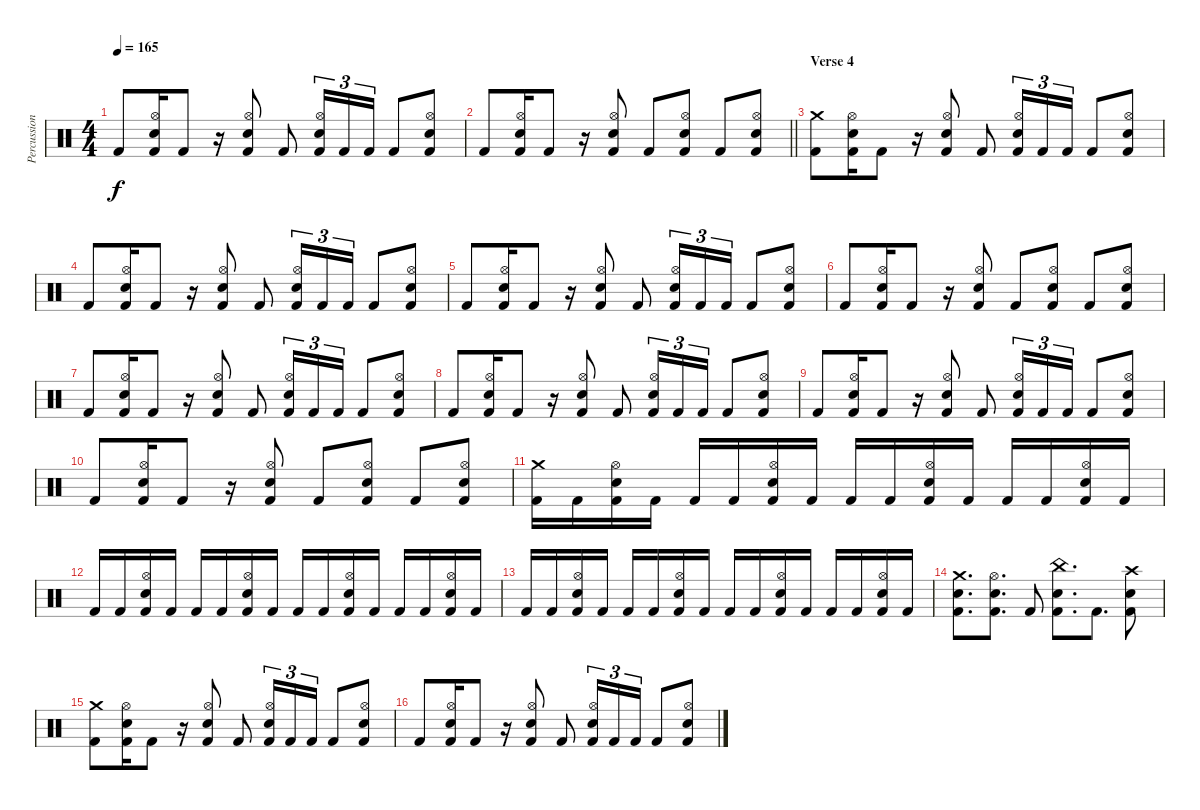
\track ("Percussion" "Percussion") {instrument percussion}
\staff {score}
\articulation defaults
\ts (4 4)
\tempo 165
\clef neutral
\ks c "Kick (hit) 2".8{dy f}
("Hi-Hat (open)" "Kick (hit) 2" "Snare (hit) 2").16 "Kick (hit) 2".8 r.16 ("Hi-Hat (open)" "Kick (hit) 2" "Snare (hit) 2").8 "Kick (hit) 2".8 ("Hi-Hat (open)" "Kick (hit) 2" "Snare (hit) 2").16{tu (3 2)} "Kick (hit) 2".16{tu (3 2)} "Kick (hit) 2".16{tu (3 2)} "Kick (hit) 2".8 ("Hi-Hat (open)" "Kick (hit) 2" "Snare (hit) 2").8 |
\barLineRight lightlight "Kick (hit) 2".8
("Hi-Hat (open)" "Kick (hit) 2" "Snare (hit) 2").16 "Kick (hit) 2".8 r.16 ("Hi-Hat (open)" "Kick (hit) 2" "Snare (hit) 2").8 "Kick (hit) 2".8 ("Hi-Hat (open)" "Kick (hit) 2" "Snare (hit) 2").8 "Kick (hit) 2".8 ("Hi-Hat (open)" "Kick (hit) 2" "Snare (hit) 2").8 |
\section ("" "Verse 4")
("Crash medium (hit)" "Kick (hit) 2").8 ("Hi-Hat (open)" "Kick (hit) 2" "Snare (hit) 2").16 "Kick (hit) 2".8 r.16 ("Hi-Hat (open)" "Kick (hit) 2" "Snare (hit) 2").8 "Kick (hit) 2".8 ("Hi-Hat (open)" "Kick (hit) 2" "Snare (hit) 2").16{tu (3 2)} "Kick (hit) 2".16{tu (3 2)} "Kick (hit) 2".16{tu (3 2)} "Kick (hit) 2".8 ("Hi-Hat (open)" "Kick (hit) 2" "Snare (hit) 2").8 |
"Kick (hit) 2".8 ("Hi-Hat (open)" "Kick (hit) 2" "Snare (hit) 2").16 "Kick (hit) 2".8 r.16 ("Hi-Hat (open)" "Kick (hit) 2" "Snare (hit) 2").8 "Kick (hit) 2".8 ("Hi-Hat (open)" "Kick (hit) 2" "Snare (hit) 2").16{tu (3 2)} "Kick (hit) 2".16{tu (3 2)} "Kick (hit) 2".16{tu (3 2)} "Kick (hit) 2".8 ("Hi-Hat (open)" "Kick (hit) 2" "Snare (hit) 2").8 |
"Kick (hit) 2".8 ("Hi-Hat (open)" "Kick (hit) 2" "Snare (hit) 2").16 "Kick (hit) 2".8 r.16 ("Hi-Hat (open)" "Kick (hit) 2" "Snare (hit) 2").8 "Kick (hit) 2".8 ("Hi-Hat (open)" "Kick (hit) 2" "Snare (hit) 2").16{tu (3 2)} "Kick (hit) 2".16{tu (3 2)} "Kick (hit) 2".16{tu (3 2)} "Kick (hit) 2".8 ("Hi-Hat (open)" "Kick (hit) 2" "Snare (hit) 2").8 |
"Kick (hit) 2".8 ("Hi-Hat (open)" "Kick (hit) 2" "Snare (hit) 2").16 "Kick (hit) 2".8 r.16 ("Hi-Hat (open)" "Kick (hit) 2" "Snare (hit) 2").8 "Kick (hit) 2".8 ("Hi-Hat (open)" "Kick (hit) 2" "Snare (hit) 2").8 "Kick (hit) 2".8 ("Hi-Hat (open)" "Kick (hit) 2" "Snare (hit) 2").8 |
"Kick (hit) 2".8 ("Hi-Hat (open)" "Kick (hit) 2" "Snare (hit) 2").16 "Kick (hit) 2".8 r.16 ("Hi-Hat (open)" "Kick (hit) 2" "Snare (hit) 2").8 "Kick (hit) 2".8 ("Hi-Hat (open)" "Kick (hit) 2" "Snare (hit) 2").16{tu (3 2)} "Kick (hit) 2".16{tu (3 2)} "Kick (hit) 2".16{tu (3 2)} "Kick (hit) 2".8 ("Hi-Hat (open)" "Kick (hit) 2" "Snare (hit) 2").8 |
"Kick (hit) 2".8 ("Hi-Hat (open)" "Kick (hit) 2" "Snare (hit) 2").16 "Kick (hit) 2".8 r.16 ("Hi-Hat (open)" "Kick (hit) 2" "Snare (hit) 2").8 "Kick (hit) 2".8 ("Hi-Hat (open)" "Kick (hit) 2" "Snare (hit) 2").16{tu (3 2)} "Kick (hit) 2".16{tu (3 2)} "Kick (hit) 2".16{tu (3 2)} "Kick (hit) 2".8 ("Hi-Hat (open)" "Kick (hit) 2" "Snare (hit) 2").8 |
"Kick (hit) 2".8 ("Hi-Hat (open)" "Kick (hit) 2" "Snare (hit) 2").16 "Kick (hit) 2".8 r.16 ("Hi-Hat (open)" "Kick (hit) 2" "Snare (hit) 2").8 "Kick (hit) 2".8 ("Hi-Hat (open)" "Kick (hit) 2" "Snare (hit) 2").16{tu (3 2)} "Kick (hit) 2".16{tu (3 2)} "Kick (hit) 2".16{tu (3 2)} "Kick (hit) 2".8 ("Hi-Hat (open)" "Kick (hit) 2" "Snare (hit) 2").8 |
"Kick (hit) 2".8 ("Hi-Hat (open)" "Kick (hit) 2" "Snare (hit) 2").16 "Kick (hit) 2".8 r.16 ("Hi-Hat (open)" "Kick (hit) 2" "Snare (hit) 2").8 "Kick (hit) 2".8 ("Hi-Hat (open)" "Kick (hit) 2" "Snare (hit) 2").8 "Kick (hit) 2".8 ("Hi-Hat (open)" "Kick (hit) 2" "Snare (hit) 2").8 |
("Crash medium (hit)" "Kick (hit) 2").16 "Kick (hit) 2".16 ("Hi-Hat (open)" "Kick (hit) 2" "Snare (hit) 2").16 "Kick (hit) 2".16 "Kick (hit) 2".16 "Kick (hit) 2".16 ("Hi-Hat (open)" "Kick (hit) 2" "Snare (hit) 2").16 "Kick (hit) 2".16 "Kick (hit) 2".16 "Kick (hit) 2".16 ("Hi-Hat (open)" "Kick (hit) 2" "Snare (hit) 2").16 "Kick (hit) 2".16 "Kick (hit) 2".16 "Kick (hit) 2".16 ("Hi-Hat (open)" "Kick (hit) 2" "Snare (hit) 2").16 "Kick (hit) 2".16 |
"Kick (hit) 2".16 "Kick (hit) 2".16 ("Hi-Hat (open)" "Kick (hit) 2" "Snare (hit) 2").16 "Kick (hit) 2".16 "Kick (hit) 2".16 "Kick (hit) 2".16 ("Hi-Hat (open)" "Kick (hit) 2" "Snare (hit) 2").16 "Kick (hit) 2".16 "Kick (hit) 2".16 "Kick (hit) 2".16 ("Hi-Hat (open)" "Kick (hit) 2" "Snare (hit) 2").16 "Kick (hit) 2".16 "Kick (hit) 2".16 "Kick (hit) 2".16 ("Hi-Hat (open)" "Kick (hit) 2" "Snare (hit) 2").16 "Kick (hit) 2".16 |
"Kick (hit) 2".16 "Kick (hit) 2".16 ("Hi-Hat (open)" "Kick (hit) 2" "Snare (hit) 2").16 "Kick (hit) 2".16 "Kick (hit) 2".16 "Kick (hit) 2".16 ("Hi-Hat (open)" "Kick (hit) 2" "Snare (hit) 2").16 "Kick (hit) 2".16 "Kick (hit) 2".16 "Kick (hit) 2".16 ("Hi-Hat (open)" "Kick (hit) 2" "Snare (hit) 2").16 "Kick (hit) 2".16 "Kick (hit) 2".16 "Kick (hit) 2".16 ("Hi-Hat (open)" "Kick (hit) 2" "Snare (hit) 2").16 "Kick (hit) 2".16 |
("Crash medium (hit)" "Kick (hit) 2" "Snare (hit) 2").8{d} ("Hi-Hat (open)" "Kick (hit) 2" "Snare (hit) 2").8{d} "Kick (hit) 2".8 ("China (hit)" "Kick (hit) 2" "Snare (hit) 2").8{d} "Kick (hit) 2".8{d} ("Crash high (hit)" "Kick (hit) 2" "Snare (hit) 2").8 |
("Crash medium (hit)" "Kick (hit) 2").8 ("Hi-Hat (open)" "Kick (hit) 2" "Snare (hit) 2").16 "Kick (hit) 2".8 r.16 ("Hi-Hat (open)" "Kick (hit) 2" "Snare (hit) 2").8 "Kick (hit) 2".8 ("Hi-Hat (open)" "Kick (hit) 2" "Snare (hit) 2").16{tu (3 2)} "Kick (hit) 2".16{tu (3 2)} "Kick (hit) 2".16{tu (3 2)} "Kick (hit) 2".8 ("Hi-Hat (open)" "Kick (hit) 2" "Snare (hit) 2").8 |
"Kick (hit) 2".8 ("Hi-Hat (open)" "Kick (hit) 2" "Snare (hit) 2").16 "Kick (hit) 2".8 r.16 ("Hi-Hat (open)" "Kick (hit) 2" "Snare (hit) 2").8 "Kick (hit) 2".8 ("Hi-Hat (open)" "Kick (hit) 2" "Snare (hit) 2").16{tu (3 2)} "Kick (hit) 2".16{tu (3 2)} "Kick (hit) 2".16{tu (3 2)} "Kick (hit) 2".8 ("Hi-Hat (open)" "Kick (hit) 2" "Snare (hit) 2").8
